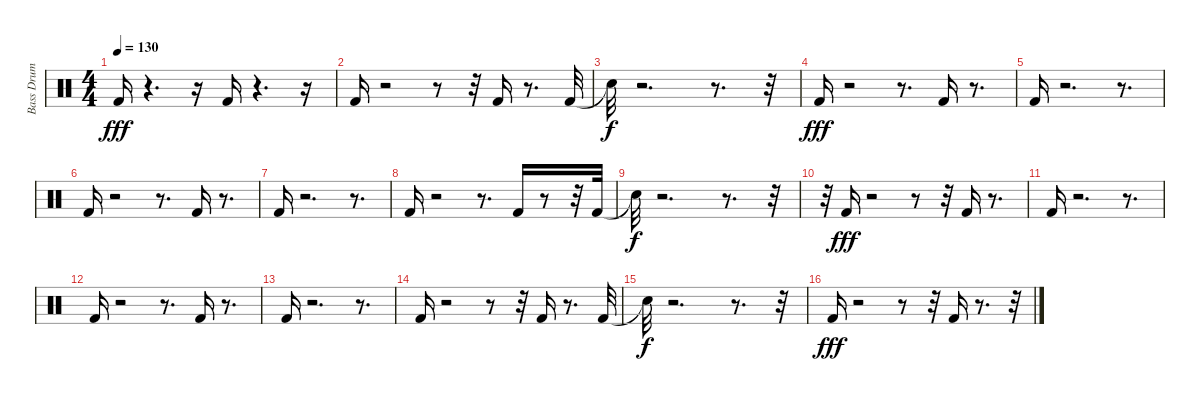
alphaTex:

\track ("Bass Drum" "Bass Drum") {instrument percussion}
\staff {score}
\articulation defaults
\ts (4 4)
\tempo 130
\clef neutral
\ks c "Kick (hit) 2".16{dy fff}
r.4{d} r.16 "Kick (hit) 2".16 r.4{d} r.16 |
"Kick (hit) 2".16 r.2 r.8 r.32 "Kick (hit) 2".16 r.8{d} "Kick (hit) 2".32 |
"Snare (hit)"{t}.32{dy f} r.2{d} r.8{d} r.32 |
"Kick (hit) 2".16{dy fff} r.2 r.8{d} "Kick (hit) 2".16 r.8{d} |
"Kick (hit) 2".16 r.2{d} r.8{d} |
"Kick (hit) 2".16 r.2 r.8{d} "Kick (hit) 2".16 r.8{d} |
"Kick (hit) 2".16 r.2{d} r.8{d} |
"Kick (hit) 2".16 r.2 r.8{d} "Kick (hit) 2".16 r.8 r.32 "Kick (hit) 2".32 |
"Snare (hit)"{t}.32{dy f} r.2{d} r.8{d} r.32 |
r.32 "Kick (hit) 2".16{dy fff} r.2 r.8 r.32 "Kick (hit) 2".16 r.8{d} |
"Kick (hit) 2".16 r.2{d} r.8{d} |
"Kick (hit) 2".16 r.2 r.8{d} "Kick (hit) 2".16 r.8{d} |
"Kick (hit) 2".16 r.2{d} r.8{d} |
"Kick (hit) 2".16 r.2 r.8 r.32 "Kick (hit) 2".16 r.8{d} "Kick (hit) 2".32 |
"Snare (hit)"{t}.32{dy f} r.2{d} r.8{d} r.32 |
"Kick (hit) 2".16{dy fff} r.2 r.8 r.32 "Kick (hit) 2".16 r.8{d} r.32
